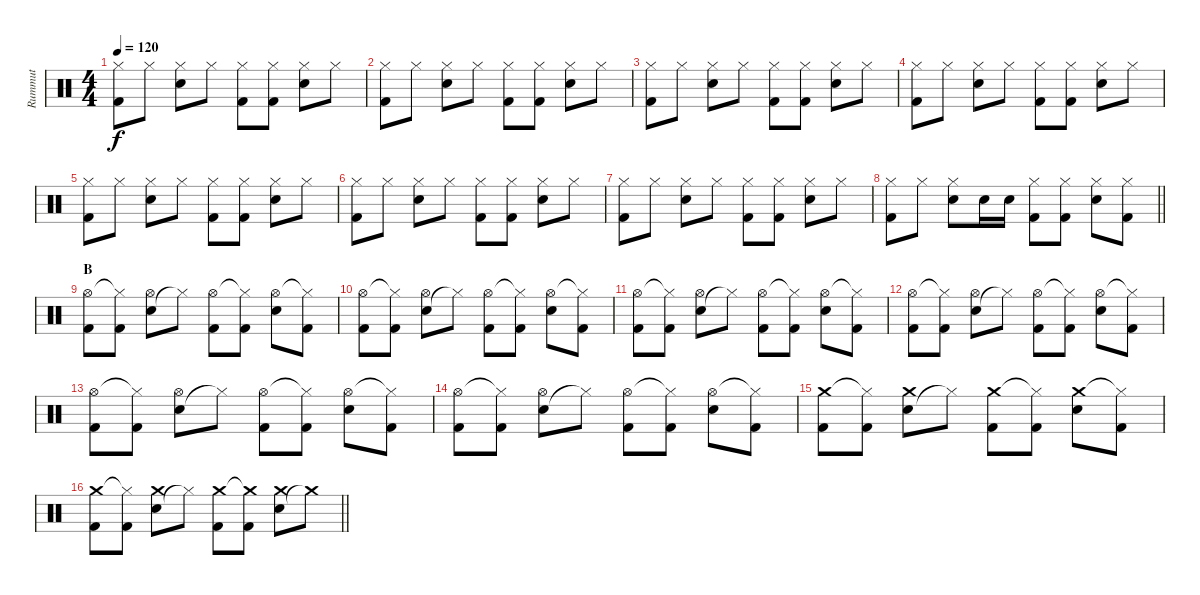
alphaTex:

\track ("Rummut" "Rummut") {instrument percussion}
\staff {score}
\articulation defaults
\ts (4 4)
\tempo 120
\clef neutral
\ks c
("Kick (hit) 2" "Hi-Hat (closed)").8{dy f} "Hi-Hat (closed)".8 ("Electric Snare (hit)" "Hi-Hat (closed)").8 "Hi-Hat (closed)".8 ("Kick (hit) 2" "Hi-Hat (closed)").8 ("Kick (hit) 2" "Hi-Hat (closed)").8 ("Electric Snare (hit)" "Hi-Hat (closed)").8 "Hi-Hat (closed)".8 |
("Kick (hit) 2" "Hi-Hat (closed)").8 "Hi-Hat (closed)".8 ("Electric Snare (hit)" "Hi-Hat (closed)").8 "Hi-Hat (closed)".8 ("Kick (hit) 2" "Hi-Hat (closed)").8 ("Kick (hit) 2" "Hi-Hat (closed)").8 ("Electric Snare (hit)" "Hi-Hat (closed)").8 "Hi-Hat (closed)".8 |
("Kick (hit) 2" "Hi-Hat (closed)").8 "Hi-Hat (closed)".8 ("Electric Snare (hit)" "Hi-Hat (closed)").8 "Hi-Hat (closed)".8 ("Kick (hit) 2" "Hi-Hat (closed)").8 ("Kick (hit) 2" "Hi-Hat (closed)").8 ("Electric Snare (hit)" "Hi-Hat (closed)").8 "Hi-Hat (closed)".8 |
("Kick (hit) 2" "Hi-Hat (closed)").8 "Hi-Hat (closed)".8 ("Electric Snare (hit)" "Hi-Hat (closed)").8 "Hi-Hat (closed)".8 ("Kick (hit) 2" "Hi-Hat (closed)").8 ("Kick (hit) 2" "Hi-Hat (closed)").8 ("Electric Snare (hit)" "Hi-Hat (closed)").8 "Hi-Hat (closed)".8 |
("Kick (hit) 2" "Hi-Hat (closed)").8 "Hi-Hat (closed)".8 ("Electric Snare (hit)" "Hi-Hat (closed)").8 "Hi-Hat (closed)".8 ("Kick (hit) 2" "Hi-Hat (closed)").8 ("Kick (hit) 2" "Hi-Hat (closed)").8 ("Electric Snare (hit)" "Hi-Hat (closed)").8 "Hi-Hat (closed)".8 |
("Kick (hit) 2" "Hi-Hat (closed)").8 "Hi-Hat (closed)".8 ("Electric Snare (hit)" "Hi-Hat (closed)").8 "Hi-Hat (closed)".8 ("Kick (hit) 2" "Hi-Hat (closed)").8 ("Kick (hit) 2" "Hi-Hat (closed)").8 ("Electric Snare (hit)" "Hi-Hat (closed)").8 "Hi-Hat (closed)".8 |
("Kick (hit) 2" "Hi-Hat (closed)").8 "Hi-Hat (closed)".8 ("Electric Snare (hit)" "Hi-Hat (closed)").8 "Hi-Hat (closed)".8 ("Kick (hit) 2" "Hi-Hat (closed)").8 ("Kick (hit) 2" "Hi-Hat (closed)").8 ("Electric Snare (hit)" "Hi-Hat (closed)").8 "Hi-Hat (closed)".8 |
\barLineRight lightlight
("Kick (hit) 2" "Hi-Hat (closed)").8 "Hi-Hat (closed)".8 ("Electric Snare (hit)" "Hi-Hat (closed)").8 "Electric Snare (hit)".16 "Electric Snare (hit)".16 ("Kick (hit) 2" "Hi-Hat (closed)").8 ("Kick (hit) 2" "Hi-Hat (closed)").8 ("Electric Snare (hit)" "Hi-Hat (closed)").8 ("Kick (hit) 2" "Hi-Hat (closed)").8 |
\section ("" "B")
("Kick (hit) 2" "Hi-Hat (open)").8 ("Kick (hit) 2" "Hi-Hat (closed)"{t}).8 ("Electric Snare (hit)" "Hi-Hat (open)").8 "Hi-Hat (closed)"{t}.8 ("Kick (hit) 2" "Hi-Hat (open)").8 ("Kick (hit) 2" "Hi-Hat (closed)"{t}).8 ("Electric Snare (hit)" "Hi-Hat (open)").8 ("Kick (hit) 2" "Hi-Hat (closed)"{t}).8 |
("Kick (hit) 2" "Hi-Hat (open)").8 ("Kick (hit) 2" "Hi-Hat (closed)"{t}).8 ("Electric Snare (hit)" "Hi-Hat (open)").8 "Hi-Hat (closed)"{t}.8 ("Kick (hit) 2" "Hi-Hat (open)").8 ("Kick (hit) 2" "Hi-Hat (closed)"{t}).8 ("Electric Snare (hit)" "Hi-Hat (open)").8 ("Kick (hit) 2" "Hi-Hat (closed)"{t}).8 |
("Kick (hit) 2" "Hi-Hat (open)").8 ("Kick (hit) 2" "Hi-Hat (closed)"{t}).8 ("Electric Snare (hit)" "Hi-Hat (open)").8 "Hi-Hat (closed)"{t}.8 ("Kick (hit) 2" "Hi-Hat (open)").8 ("Kick (hit) 2" "Hi-Hat (closed)"{t}).8 ("Electric Snare (hit)" "Hi-Hat (open)").8 ("Kick (hit) 2" "Hi-Hat (closed)"{t}).8 |
("Kick (hit) 2" "Hi-Hat (open)").8 ("Kick (hit) 2" "Hi-Hat (closed)"{t}).8 ("Electric Snare (hit)" "Hi-Hat (open)").8 "Hi-Hat (closed)"{t}.8 ("Kick (hit) 2" "Hi-Hat (open)").8 ("Kick (hit) 2" "Hi-Hat (closed)"{t}).8 ("Electric Snare (hit)" "Hi-Hat (open)").8 ("Kick (hit) 2" "Hi-Hat (closed)"{t}).8 |
("Kick (hit) 2" "Hi-Hat (open)").8 ("Kick (hit) 2" "Hi-Hat (closed)"{t}).8 ("Electric Snare (hit)" "Hi-Hat (open)").8 "Hi-Hat (closed)"{t}.8 ("Kick (hit) 2" "Hi-Hat (open)").8 ("Kick (hit) 2" "Hi-Hat (closed)"{t}).8 ("Electric Snare (hit)" "Hi-Hat (open)").8 ("Kick (hit) 2" "Hi-Hat (closed)"{t}).8 |
("Kick (hit) 2" "Hi-Hat (open)").8 ("Kick (hit) 2" "Hi-Hat (closed)"{t}).8 ("Electric Snare (hit)" "Hi-Hat (open)").8 "Hi-Hat (closed)"{t}.8 ("Kick (hit) 2" "Hi-Hat (open)").8 ("Kick (hit) 2" "Hi-Hat (closed)"{t}).8 ("Electric Snare (hit)" "Hi-Hat (open)").8 ("Kick (hit) 2" "Hi-Hat (closed)"{t}).8 |
("Kick (hit) 2" "Crash medium (hit)").8 ("Kick (hit) 2" "Hi-Hat (closed)"{t}).8 ("Electric Snare (hit)" "Crash medium (hit)").8 "Hi-Hat (closed)"{t}.8 ("Kick (hit) 2" "Crash medium (hit)").8 ("Kick (hit) 2" "Hi-Hat (closed)"{t}).8 ("Electric Snare (hit)" "Crash medium (hit)").8 ("Kick (hit) 2" "Hi-Hat (closed)"{t}).8 |
\barLineRight lightlight
("Kick (hit) 2" "Crash medium (hit)").8 ("Kick (hit) 2" "Hi-Hat (closed)"{t}).8 ("Electric Snare (hit)" "Crash medium (hit)").8 "Hi-Hat (closed)"{t}.8 ("Kick (hit) 2" "Crash medium (hit)").8 ("Kick (hit) 2" "Crash medium (hit)"{t}).8 ("Electric Snare (hit)" "Crash medium (hit)").8 "Crash medium (hit)"{t}.8
